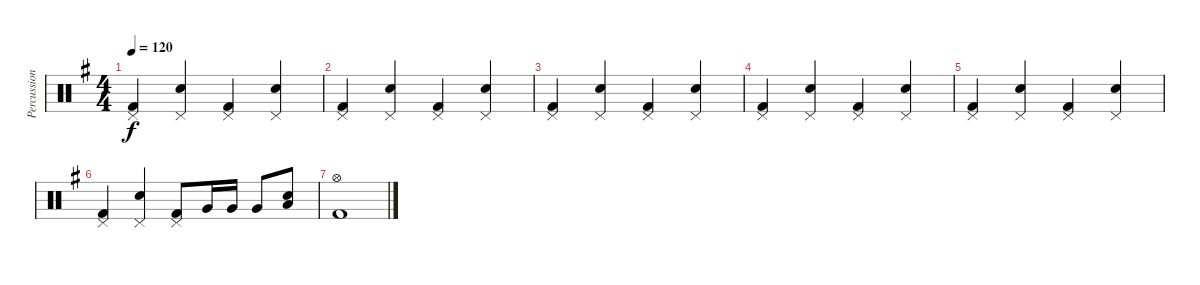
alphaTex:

\track ("Percussion" "Percussion") {instrument percussion}
\staff {score}
\articulation defaults
\ts (4 4)
\tempo 120
\clef neutral
\ks eminor
("Kick (hit) 2" "Pedal Hi-Hat (hit)").4{dy f} ("Snare (hit) 2" "Pedal Hi-Hat (hit)").4 ("Kick (hit) 2" "Pedal Hi-Hat (hit)").4 ("Snare (hit) 2" "Pedal Hi-Hat (hit)").4 |
("Kick (hit) 2" "Pedal Hi-Hat (hit)").4 ("Snare (hit) 2" "Pedal Hi-Hat (hit)").4 ("Kick (hit) 2" "Pedal Hi-Hat (hit)").4 ("Snare (hit) 2" "Pedal Hi-Hat (hit)").4 |
("Kick (hit) 2" "Pedal Hi-Hat (hit)").4 ("Snare (hit) 2" "Pedal Hi-Hat (hit)").4 ("Kick (hit) 2" "Pedal Hi-Hat (hit)").4 ("Snare (hit) 2" "Pedal Hi-Hat (hit)").4 |
("Kick (hit) 2" "Pedal Hi-Hat (hit)").4 ("Snare (hit) 2" "Pedal Hi-Hat (hit)").4 ("Kick (hit) 2" "Pedal Hi-Hat (hit)").4 ("Snare (hit) 2" "Pedal Hi-Hat (hit)").4 |
("Kick (hit) 2" "Pedal Hi-Hat (hit)").4 ("Snare (hit) 2" "Pedal Hi-Hat (hit)").4 ("Kick (hit) 2" "Pedal Hi-Hat (hit)").4 ("Snare (hit) 2" "Pedal Hi-Hat (hit)").4 |
("Kick (hit) 2" "Pedal Hi-Hat (hit)").4 ("Snare (hit) 2" "Pedal Hi-Hat (hit)").4 ("Kick (hit) 2" "Pedal Hi-Hat (hit)").8 "Very Low Tom (hit)".16 "Very Low Tom (hit)".16 "Very Low Tom (hit)".8 ("Snare (hit) 2" "Low Floor Tom (hit)").8 |
("Kick (hit) 2" "Hi-Hat (open)").1
